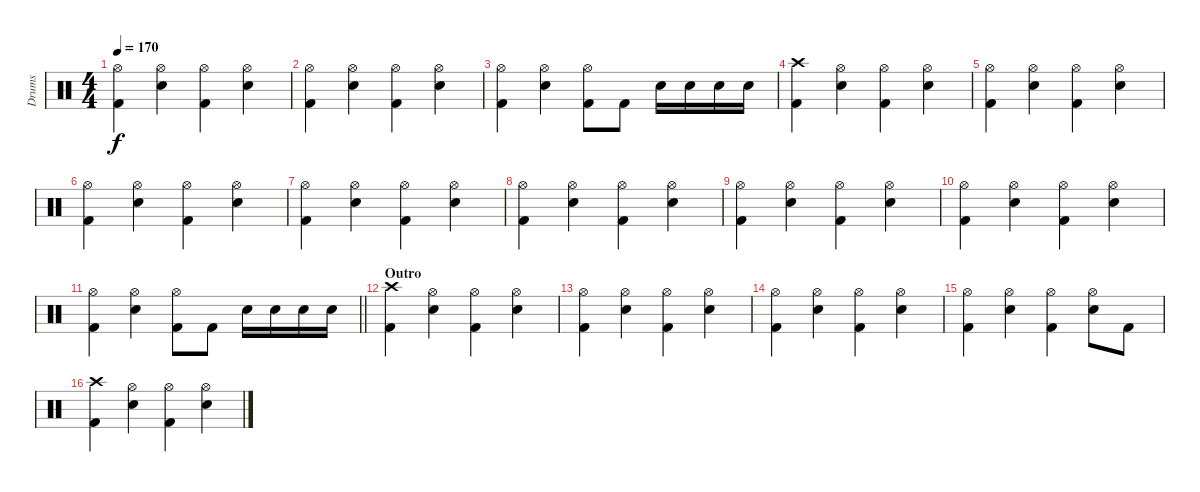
\track ("Drums" "Drums") {instrument percussion}
\staff {score}
\articulation defaults
\ts (4 4)
\tempo 170
\clef neutral
\ks c
("Hi-Hat (open)" "Kick (hit) 2").4{dy f} ("Hi-Hat (open)" "Snare (hit) 2").4 ("Hi-Hat (open)" "Kick (hit) 2").4 ("Hi-Hat (open)" "Snare (hit) 2").4 |
("Hi-Hat (open)" "Kick (hit) 2").4 ("Hi-Hat (open)" "Snare (hit) 2").4 ("Hi-Hat (open)" "Kick (hit) 2").4 ("Hi-Hat (open)" "Snare (hit) 2").4 |
("Hi-Hat (open)" "Kick (hit) 2").4 ("Hi-Hat (open)" "Snare (hit) 2").4 ("Hi-Hat (open)" "Kick (hit) 2").8 "Kick (hit) 2".8 "Snare (hit) 2".16 "Snare (hit) 2".16 "Snare (hit) 2".16 "Snare (hit) 2".16 |
("Crash high (hit)" "Kick (hit) 2").4 ("Hi-Hat (open)" "Snare (hit) 2").4 ("Hi-Hat (open)" "Kick (hit) 2").4 ("Hi-Hat (open)" "Snare (hit) 2").4 |
("Hi-Hat (open)" "Kick (hit) 2").4 ("Hi-Hat (open)" "Snare (hit) 2").4 ("Hi-Hat (open)" "Kick (hit) 2").4 ("Hi-Hat (open)" "Snare (hit) 2").4 |
("Hi-Hat (open)" "Kick (hit) 2").4 ("Hi-Hat (open)" "Snare (hit) 2").4 ("Hi-Hat (open)" "Kick (hit) 2").4 ("Hi-Hat (open)" "Snare (hit) 2").4 |
("Hi-Hat (open)" "Kick (hit) 2").4 ("Hi-Hat (open)" "Snare (hit) 2").4 ("Hi-Hat (open)" "Kick (hit) 2").4 ("Hi-Hat (open)" "Snare (hit) 2").4 |
("Hi-Hat (open)" "Kick (hit) 2").4 ("Hi-Hat (open)" "Snare (hit) 2").4 ("Hi-Hat (open)" "Kick (hit) 2").4 ("Hi-Hat (open)" "Snare (hit) 2").4 |
("Hi-Hat (open)" "Kick (hit) 2").4 ("Hi-Hat (open)" "Snare (hit) 2").4 ("Hi-Hat (open)" "Kick (hit) 2").4 ("Hi-Hat (open)" "Snare (hit) 2").4 |
("Hi-Hat (open)" "Kick (hit) 2").4 ("Hi-Hat (open)" "Snare (hit) 2").4 ("Hi-Hat (open)" "Kick (hit) 2").4 ("Hi-Hat (open)" "Snare (hit) 2").4 |
\barLineRight lightlight
("Hi-Hat (open)" "Kick (hit) 2").4 ("Hi-Hat (open)" "Snare (hit) 2").4 ("Hi-Hat (open)" "Kick (hit) 2").8 "Kick (hit) 2".8 "Snare (hit) 2".16 "Snare (hit) 2".16 "Snare (hit) 2".16 "Snare (hit) 2".16 |
\section ("" "Outro")
("Crash high (hit)" "Kick (hit) 2").4 ("Hi-Hat (open)" "Snare (hit) 2").4 ("Hi-Hat (open)" "Kick (hit) 2").4 ("Hi-Hat (open)" "Snare (hit) 2").4 |
("Hi-Hat (open)" "Kick (hit) 2").4 ("Hi-Hat (open)" "Snare (hit) 2").4 ("Hi-Hat (open)" "Kick (hit) 2").4 ("Hi-Hat (open)" "Snare (hit) 2").4 |
("Hi-Hat (open)" "Kick (hit) 2").4 ("Hi-Hat (open)" "Snare (hit) 2").4 ("Hi-Hat (open)" "Kick (hit) 2").4 ("Hi-Hat (open)" "Snare (hit) 2").4 |
("Hi-Hat (open)" "Kick (hit) 2").4 ("Hi-Hat (open)" "Snare (hit) 2").4 ("Hi-Hat (open)" "Kick (hit) 2").4 ("Hi-Hat (open)" "Snare (hit) 2").8 "Kick (hit) 2".8 |
("Crash high (hit)" "Kick (hit) 2").4 ("Hi-Hat (open)" "Snare (hit) 2").4 ("Hi-Hat (open)" "Kick (hit) 2").4 ("Hi-Hat (open)" "Snare (hit) 2").4
